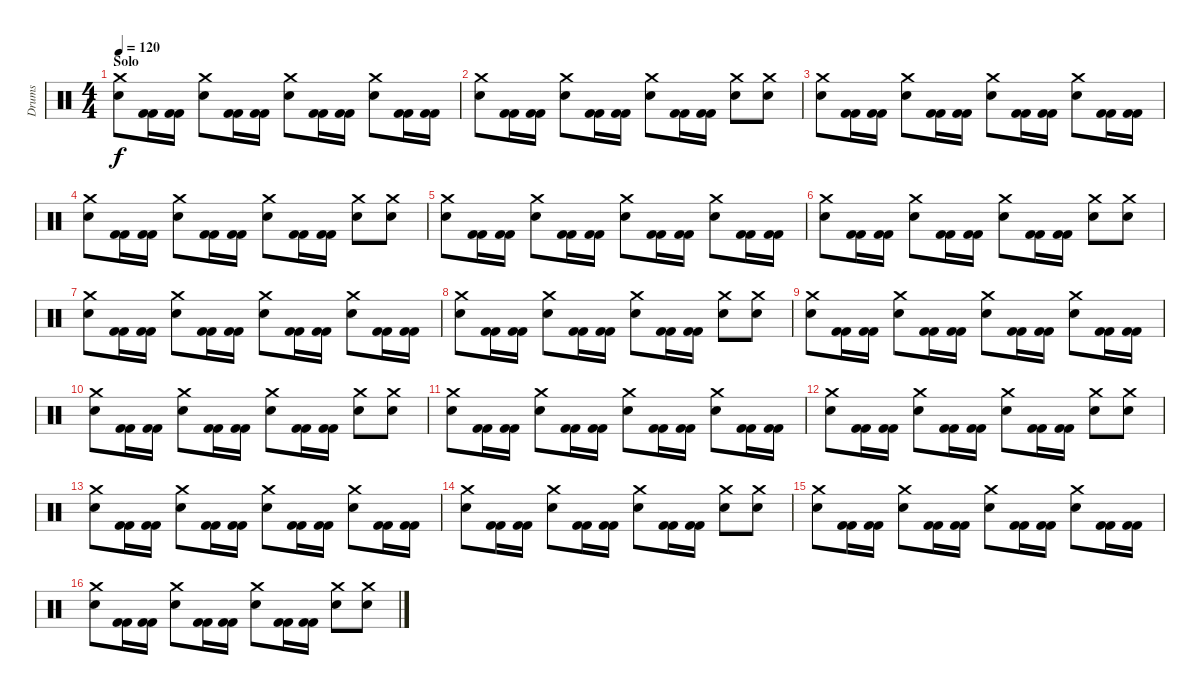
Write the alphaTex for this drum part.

\track ("Drums" "Drums") {instrument percussion}
\staff {score}
\articulation defaults
\ts (4 4)
\section ("" "Solo")
\tempo 120
\clef neutral
\ks c
("Crash medium (hit)" "Electric Snare (hit)").8{dy f} ("Kick (hit) 2" "Kick (hit) 2").16 ("Kick (hit) 2" "Kick (hit) 2").16 ("Electric Snare (hit)" "Crash medium (hit)").8 ("Kick (hit) 2" "Kick (hit) 2").16 ("Kick (hit) 2" "Kick (hit) 2").16 ("Crash medium (hit)" "Electric Snare (hit)").8 ("Kick (hit) 2" "Kick (hit) 2").16 ("Kick (hit) 2" "Kick (hit) 2").16 ("Electric Snare (hit)" "Crash medium (hit)").8 ("Kick (hit) 2" "Kick (hit) 2").16 ("Kick (hit) 2" "Kick (hit) 2").16 |
("Crash medium (hit)" "Electric Snare (hit)").8 ("Kick (hit) 2" "Kick (hit) 2").16 ("Kick (hit) 2" "Kick (hit) 2").16 ("Electric Snare (hit)" "Crash medium (hit)").8 ("Kick (hit) 2" "Kick (hit) 2").16 ("Kick (hit) 2" "Kick (hit) 2").16 ("Crash medium (hit)" "Electric Snare (hit)").8 ("Kick (hit) 2" "Kick (hit) 2").16 ("Kick (hit) 2" "Kick (hit) 2").16 ("Electric Snare (hit)" "Crash medium (hit)").8 ("Crash medium (hit)" "Electric Snare (hit)").8 |
("Crash medium (hit)" "Electric Snare (hit)").8 ("Kick (hit) 2" "Kick (hit) 2").16 ("Kick (hit) 2" "Kick (hit) 2").16 ("Electric Snare (hit)" "Crash medium (hit)").8 ("Kick (hit) 2" "Kick (hit) 2").16 ("Kick (hit) 2" "Kick (hit) 2").16 ("Crash medium (hit)" "Electric Snare (hit)").8 ("Kick (hit) 2" "Kick (hit) 2").16 ("Kick (hit) 2" "Kick (hit) 2").16 ("Electric Snare (hit)" "Crash medium (hit)").8 ("Kick (hit) 2" "Kick (hit) 2").16 ("Kick (hit) 2" "Kick (hit) 2").16 |
("Crash medium (hit)" "Electric Snare (hit)").8 ("Kick (hit) 2" "Kick (hit) 2").16 ("Kick (hit) 2" "Kick (hit) 2").16 ("Electric Snare (hit)" "Crash medium (hit)").8 ("Kick (hit) 2" "Kick (hit) 2").16 ("Kick (hit) 2" "Kick (hit) 2").16 ("Crash medium (hit)" "Electric Snare (hit)").8 ("Kick (hit) 2" "Kick (hit) 2").16 ("Kick (hit) 2" "Kick (hit) 2").16 ("Electric Snare (hit)" "Crash medium (hit)").8 ("Crash medium (hit)" "Electric Snare (hit)").8 |
("Crash medium (hit)" "Electric Snare (hit)").8 ("Kick (hit) 2" "Kick (hit) 2").16 ("Kick (hit) 2" "Kick (hit) 2").16 ("Electric Snare (hit)" "Crash medium (hit)").8 ("Kick (hit) 2" "Kick (hit) 2").16 ("Kick (hit) 2" "Kick (hit) 2").16 ("Crash medium (hit)" "Electric Snare (hit)").8 ("Kick (hit) 2" "Kick (hit) 2").16 ("Kick (hit) 2" "Kick (hit) 2").16 ("Electric Snare (hit)" "Crash medium (hit)").8 ("Kick (hit) 2" "Kick (hit) 2").16 ("Kick (hit) 2" "Kick (hit) 2").16 |
("Crash medium (hit)" "Electric Snare (hit)").8 ("Kick (hit) 2" "Kick (hit) 2").16 ("Kick (hit) 2" "Kick (hit) 2").16 ("Electric Snare (hit)" "Crash medium (hit)").8 ("Kick (hit) 2" "Kick (hit) 2").16 ("Kick (hit) 2" "Kick (hit) 2").16 ("Crash medium (hit)" "Electric Snare (hit)").8 ("Kick (hit) 2" "Kick (hit) 2").16 ("Kick (hit) 2" "Kick (hit) 2").16 ("Electric Snare (hit)" "Crash medium (hit)").8 ("Crash medium (hit)" "Electric Snare (hit)").8 |
("Crash medium (hit)" "Electric Snare (hit)").8 ("Kick (hit) 2" "Kick (hit) 2").16 ("Kick (hit) 2" "Kick (hit) 2").16 ("Electric Snare (hit)" "Crash medium (hit)").8 ("Kick (hit) 2" "Kick (hit) 2").16 ("Kick (hit) 2" "Kick (hit) 2").16 ("Crash medium (hit)" "Electric Snare (hit)").8 ("Kick (hit) 2" "Kick (hit) 2").16 ("Kick (hit) 2" "Kick (hit) 2").16 ("Electric Snare (hit)" "Crash medium (hit)").8 ("Kick (hit) 2" "Kick (hit) 2").16 ("Kick (hit) 2" "Kick (hit) 2").16 |
("Crash medium (hit)" "Electric Snare (hit)").8 ("Kick (hit) 2" "Kick (hit) 2").16 ("Kick (hit) 2" "Kick (hit) 2").16 ("Electric Snare (hit)" "Crash medium (hit)").8 ("Kick (hit) 2" "Kick (hit) 2").16 ("Kick (hit) 2" "Kick (hit) 2").16 ("Crash medium (hit)" "Electric Snare (hit)").8 ("Kick (hit) 2" "Kick (hit) 2").16 ("Kick (hit) 2" "Kick (hit) 2").16 ("Electric Snare (hit)" "Crash medium (hit)").8 ("Crash medium (hit)" "Electric Snare (hit)").8 |
("Crash medium (hit)" "Electric Snare (hit)").8 ("Kick (hit) 2" "Kick (hit) 2").16 ("Kick (hit) 2" "Kick (hit) 2").16 ("Electric Snare (hit)" "Crash medium (hit)").8 ("Kick (hit) 2" "Kick (hit) 2").16 ("Kick (hit) 2" "Kick (hit) 2").16 ("Crash medium (hit)" "Electric Snare (hit)").8 ("Kick (hit) 2" "Kick (hit) 2").16 ("Kick (hit) 2" "Kick (hit) 2").16 ("Electric Snare (hit)" "Crash medium (hit)").8 ("Kick (hit) 2" "Kick (hit) 2").16 ("Kick (hit) 2" "Kick (hit) 2").16 |
("Crash medium (hit)" "Electric Snare (hit)").8 ("Kick (hit) 2" "Kick (hit) 2").16 ("Kick (hit) 2" "Kick (hit) 2").16 ("Electric Snare (hit)" "Crash medium (hit)").8 ("Kick (hit) 2" "Kick (hit) 2").16 ("Kick (hit) 2" "Kick (hit) 2").16 ("Crash medium (hit)" "Electric Snare (hit)").8 ("Kick (hit) 2" "Kick (hit) 2").16 ("Kick (hit) 2" "Kick (hit) 2").16 ("Electric Snare (hit)" "Crash medium (hit)").8 ("Crash medium (hit)" "Electric Snare (hit)").8 |
("Crash medium (hit)" "Electric Snare (hit)").8 ("Kick (hit) 2" "Kick (hit) 2").16 ("Kick (hit) 2" "Kick (hit) 2").16 ("Electric Snare (hit)" "Crash medium (hit)").8 ("Kick (hit) 2" "Kick (hit) 2").16 ("Kick (hit) 2" "Kick (hit) 2").16 ("Crash medium (hit)" "Electric Snare (hit)").8 ("Kick (hit) 2" "Kick (hit) 2").16 ("Kick (hit) 2" "Kick (hit) 2").16 ("Electric Snare (hit)" "Crash medium (hit)").8 ("Kick (hit) 2" "Kick (hit) 2").16 ("Kick (hit) 2" "Kick (hit) 2").16 |
("Crash medium (hit)" "Electric Snare (hit)").8 ("Kick (hit) 2" "Kick (hit) 2").16 ("Kick (hit) 2" "Kick (hit) 2").16 ("Electric Snare (hit)" "Crash medium (hit)").8 ("Kick (hit) 2" "Kick (hit) 2").16 ("Kick (hit) 2" "Kick (hit) 2").16 ("Crash medium (hit)" "Electric Snare (hit)").8 ("Kick (hit) 2" "Kick (hit) 2").16 ("Kick (hit) 2" "Kick (hit) 2").16 ("Electric Snare (hit)" "Crash medium (hit)").8 ("Crash medium (hit)" "Electric Snare (hit)").8 |
("Crash medium (hit)" "Electric Snare (hit)").8 ("Kick (hit) 2" "Kick (hit) 2").16 ("Kick (hit) 2" "Kick (hit) 2").16 ("Electric Snare (hit)" "Crash medium (hit)").8 ("Kick (hit) 2" "Kick (hit) 2").16 ("Kick (hit) 2" "Kick (hit) 2").16 ("Crash medium (hit)" "Electric Snare (hit)").8 ("Kick (hit) 2" "Kick (hit) 2").16 ("Kick (hit) 2" "Kick (hit) 2").16 ("Electric Snare (hit)" "Crash medium (hit)").8 ("Kick (hit) 2" "Kick (hit) 2").16 ("Kick (hit) 2" "Kick (hit) 2").16 |
("Crash medium (hit)" "Electric Snare (hit)").8 ("Kick (hit) 2" "Kick (hit) 2").16 ("Kick (hit) 2" "Kick (hit) 2").16 ("Electric Snare (hit)" "Crash medium (hit)").8 ("Kick (hit) 2" "Kick (hit) 2").16 ("Kick (hit) 2" "Kick (hit) 2").16 ("Crash medium (hit)" "Electric Snare (hit)").8 ("Kick (hit) 2" "Kick (hit) 2").16 ("Kick (hit) 2" "Kick (hit) 2").16 ("Electric Snare (hit)" "Crash medium (hit)").8 ("Crash medium (hit)" "Electric Snare (hit)").8 |
("Crash medium (hit)" "Electric Snare (hit)").8 ("Kick (hit) 2" "Kick (hit) 2").16 ("Kick (hit) 2" "Kick (hit) 2").16 ("Electric Snare (hit)" "Crash medium (hit)").8 ("Kick (hit) 2" "Kick (hit) 2").16 ("Kick (hit) 2" "Kick (hit) 2").16 ("Crash medium (hit)" "Electric Snare (hit)").8 ("Kick (hit) 2" "Kick (hit) 2").16 ("Kick (hit) 2" "Kick (hit) 2").16 ("Electric Snare (hit)" "Crash medium (hit)").8 ("Kick (hit) 2" "Kick (hit) 2").16 ("Kick (hit) 2" "Kick (hit) 2").16 |
("Crash medium (hit)" "Electric Snare (hit)").8 ("Kick (hit) 2" "Kick (hit) 2").16 ("Kick (hit) 2" "Kick (hit) 2").16 ("Electric Snare (hit)" "Crash medium (hit)").8 ("Kick (hit) 2" "Kick (hit) 2").16 ("Kick (hit) 2" "Kick (hit) 2").16 ("Crash medium (hit)" "Electric Snare (hit)").8 ("Kick (hit) 2" "Kick (hit) 2").16 ("Kick (hit) 2" "Kick (hit) 2").16 ("Electric Snare (hit)" "Crash medium (hit)").8 ("Crash medium (hit)" "Electric Snare (hit)").8
